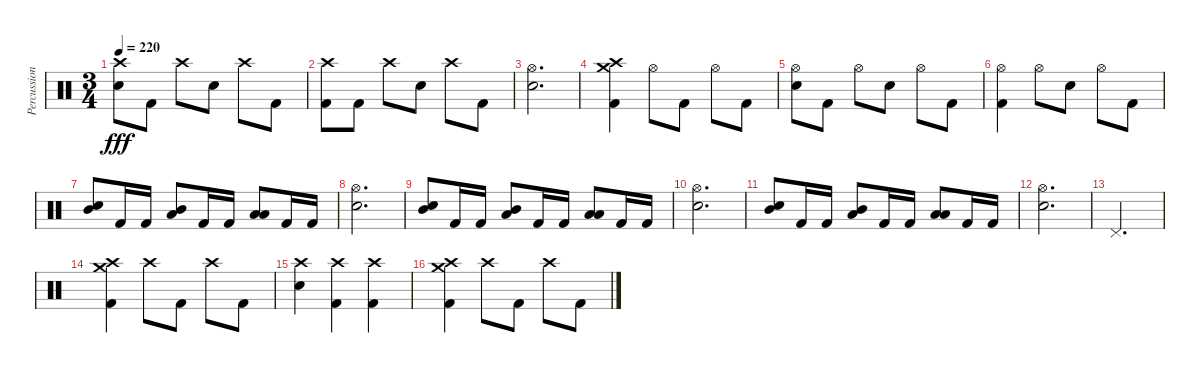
\track ("Percussions" "Percussion") {instrument percussion}
\staff {score}
\articulation defaults
\ts (3 4)
\tempo 220
\clef neutral
\ks c
("Crash high (hit)" "Electric Snare (hit)").8{dy fff} "Kick (hit) 2".8 "Crash high (hit)".8 "Electric Snare (hit)".8 "Crash high (hit)".8 "Kick (hit) 2".8 |
("Crash high (hit)" "Kick (hit) 2").8 "Kick (hit) 2".8 "Crash high (hit)".8 "Electric Snare (hit)".8 "Crash high (hit)".8 "Kick (hit) 2".8 |
("Hi-Hat (open)" "Electric Snare (hit)").2{d} |
("Crash high (hit)" "Crash medium (hit)" "Kick (hit) 2").4{bd 240} "Hi-Hat (open)".8 "Kick (hit) 2".8 "Hi-Hat (open)".8 "Kick (hit) 2".8 |
("Hi-Hat (open)" "Electric Snare (hit)").8 "Kick (hit) 2".8 "Hi-Hat (open)".8 "Electric Snare (hit)".8 "Hi-Hat (open)".8 "Kick (hit) 2".8 |
("Hi-Hat (open)" "Kick (hit) 2").4 "Hi-Hat (open)".8 "Electric Snare (hit)".8 "Hi-Hat (open)".8 "Kick (hit) 2".8 |
("Mid Tom (hit)" "Electric Snare (hit)").8 "Kick (hit) 2".16 "Kick (hit) 2".16 ("Low Tom (hit)" "Mid Tom (hit)").8 "Kick (hit) 2".16 "Kick (hit) 2".16 ("Low Floor Tom (hit)" "Low Tom (hit)").8 "Kick (hit) 2".16 "Kick (hit) 2".16 |
("Hi-Hat (open)" "Electric Snare (hit)").2{d} |
("Mid Tom (hit)" "Electric Snare (hit)").8 "Kick (hit) 2".16 "Kick (hit) 2".16 ("Low Tom (hit)" "Mid Tom (hit)").8 "Kick (hit) 2".16 "Kick (hit) 2".16 ("Low Floor Tom (hit)" "Low Tom (hit)").8 "Kick (hit) 2".16 "Kick (hit) 2".16 |
("Hi-Hat (open)" "Electric Snare (hit)").2{d} |
("Mid Tom (hit)" "Electric Snare (hit)").8 "Kick (hit) 2".16 "Kick (hit) 2".16 ("Low Tom (hit)" "Mid Tom (hit)").8 "Kick (hit) 2".16 "Kick (hit) 2".16 ("Low Floor Tom (hit)" "Low Tom (hit)").8 "Kick (hit) 2".16 "Kick (hit) 2".16 |
("Hi-Hat (open)" "Electric Snare (hit)").2{d} |
"Pedal Hi-Hat (hit)".2{d} |
("Crash high (hit)" "Crash medium (hit)" "Kick (hit) 2").4{bd 240} "Crash high (hit)".8 "Kick (hit) 2".8 "Crash high (hit)".8 "Kick (hit) 2".8 |
("Crash high (hit)" "Electric Snare (hit)").4 ("Crash high (hit)" "Kick (hit) 2").4 ("Crash high (hit)" "Kick (hit) 2").4 |
("Crash high (hit)" "Crash medium (hit)" "Kick (hit) 2").4 "Crash high (hit)".8 "Kick (hit) 2".8 "Crash high (hit)".8 "Kick (hit) 2".8
